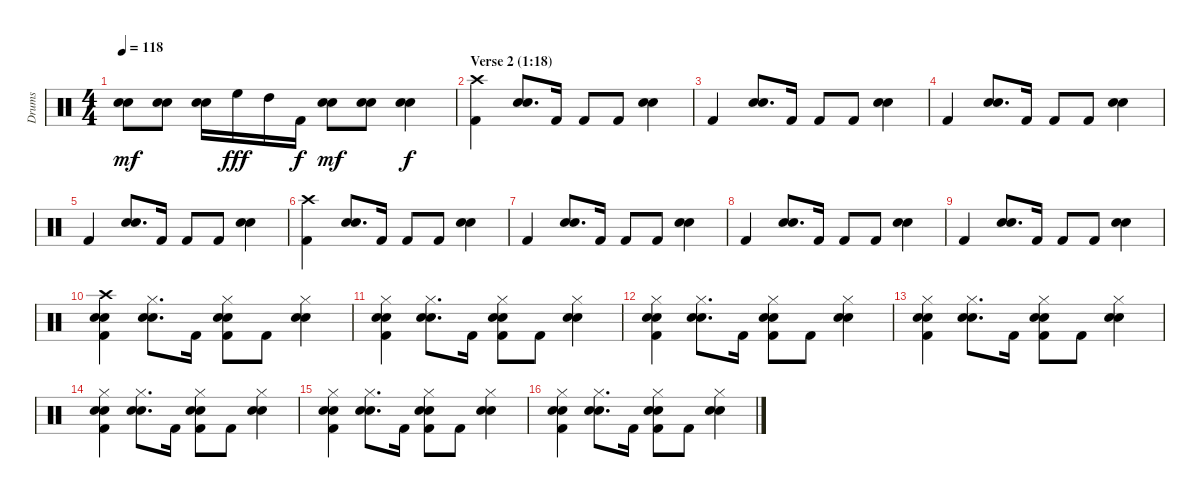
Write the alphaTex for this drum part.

\track ("Drums" "Drums") {instrument percussion}
\staff {score}
\articulation defaults
\ts (4 4)
\tempo 118
\clef neutral
\ks c
("Electric Snare (hit)" "Snare (hit) 2").8{dy mf} ("Electric Snare (hit)" "Snare (hit) 2").8 ("Electric Snare (hit)" "Snare (hit) 2").16 "High Floor Tom (hit)".16{dy fff} "High Tom (hit)".16 "Kick (hit) 2".16{dy f} ("Electric Snare (hit)" "Snare (hit) 2").8{dy mf} ("Electric Snare (hit)" "Snare (hit) 2").8 ("Electric Snare (hit)" "Snare (hit) 2").4{dy f} |
\section ("" "Verse 2 (1:18)")
("Crash high (hit)" "Kick (hit) 2").4 ("Electric Snare (hit)" "Snare (hit) 2").8{d} "Kick (hit) 2".16 "Kick (hit) 2".8 "Kick (hit) 2".8 ("Electric Snare (hit)" "Snare (hit) 2").4 |
"Kick (hit) 2".4 ("Electric Snare (hit)" "Snare (hit) 2").8{d} "Kick (hit) 2".16 "Kick (hit) 2".8 "Kick (hit) 2".8 ("Electric Snare (hit)" "Snare (hit) 2").4 |
"Kick (hit) 2".4 ("Electric Snare (hit)" "Snare (hit) 2").8{d} "Kick (hit) 2".16 "Kick (hit) 2".8 "Kick (hit) 2".8 ("Electric Snare (hit)" "Snare (hit) 2").4 |
"Kick (hit) 2".4 ("Electric Snare (hit)" "Snare (hit) 2").8{d} "Kick (hit) 2".16 "Kick (hit) 2".8 "Kick (hit) 2".8 ("Electric Snare (hit)" "Snare (hit) 2").4 |
("Crash high (hit)" "Kick (hit) 2").4 ("Electric Snare (hit)" "Snare (hit) 2").8{d} "Kick (hit) 2".16 "Kick (hit) 2".8 "Kick (hit) 2".8 ("Electric Snare (hit)" "Snare (hit) 2").4 |
"Kick (hit) 2".4 ("Electric Snare (hit)" "Snare (hit) 2").8{d} "Kick (hit) 2".16 "Kick (hit) 2".8 "Kick (hit) 2".8 ("Electric Snare (hit)" "Snare (hit) 2").4 |
"Kick (hit) 2".4 ("Electric Snare (hit)" "Snare (hit) 2").8{d} "Kick (hit) 2".16 "Kick (hit) 2".8 "Kick (hit) 2".8 ("Electric Snare (hit)" "Snare (hit) 2").4 |
"Kick (hit) 2".4 ("Electric Snare (hit)" "Snare (hit) 2").8{d} "Kick (hit) 2".16 "Kick (hit) 2".8 "Kick (hit) 2".8 ("Electric Snare (hit)" "Snare (hit) 2").4 |
("Crash high (hit)" "Electric Snare (hit)" "Snare (hit) 2" "Kick (hit) 2").4 ("Hi-Hat (closed)" "Electric Snare (hit)" "Snare (hit) 2").8{d} "Kick (hit) 2".16 ("Hi-Hat (closed)" "Electric Snare (hit)" "Snare (hit) 2" "Kick (hit) 2").8 "Kick (hit) 2".8 ("Hi-Hat (closed)" "Electric Snare (hit)" "Snare (hit) 2").4 |
("Hi-Hat (closed)" "Electric Snare (hit)" "Snare (hit) 2" "Kick (hit) 2").4 ("Hi-Hat (closed)" "Electric Snare (hit)" "Snare (hit) 2").8{d} "Kick (hit) 2".16 ("Hi-Hat (closed)" "Electric Snare (hit)" "Snare (hit) 2" "Kick (hit) 2").8 "Kick (hit) 2".8 ("Hi-Hat (closed)" "Electric Snare (hit)" "Snare (hit) 2").4 |
("Hi-Hat (closed)" "Electric Snare (hit)" "Snare (hit) 2" "Kick (hit) 2").4 ("Hi-Hat (closed)" "Electric Snare (hit)" "Snare (hit) 2").8{d} "Kick (hit) 2".16 ("Hi-Hat (closed)" "Electric Snare (hit)" "Snare (hit) 2" "Kick (hit) 2").8 "Kick (hit) 2".8 ("Hi-Hat (closed)" "Electric Snare (hit)" "Snare (hit) 2").4 |
("Hi-Hat (closed)" "Electric Snare (hit)" "Snare (hit) 2" "Kick (hit) 2").4 ("Hi-Hat (closed)" "Electric Snare (hit)" "Snare (hit) 2").8{d} "Kick (hit) 2".16 ("Hi-Hat (closed)" "Electric Snare (hit)" "Snare (hit) 2" "Kick (hit) 2").8 "Kick (hit) 2".8 ("Hi-Hat (closed)" "Electric Snare (hit)" "Snare (hit) 2").4 |
("Hi-Hat (closed)" "Electric Snare (hit)" "Snare (hit) 2" "Kick (hit) 2").4 ("Hi-Hat (closed)" "Electric Snare (hit)" "Snare (hit) 2").8{d} "Kick (hit) 2".16 ("Hi-Hat (closed)" "Electric Snare (hit)" "Snare (hit) 2" "Kick (hit) 2").8 "Kick (hit) 2".8 ("Hi-Hat (closed)" "Electric Snare (hit)" "Snare (hit) 2").4 |
("Hi-Hat (closed)" "Electric Snare (hit)" "Snare (hit) 2" "Kick (hit) 2").4 ("Hi-Hat (closed)" "Electric Snare (hit)" "Snare (hit) 2").8{d} "Kick (hit) 2".16 ("Hi-Hat (closed)" "Electric Snare (hit)" "Snare (hit) 2" "Kick (hit) 2").8 "Kick (hit) 2".8 ("Hi-Hat (closed)" "Electric Snare (hit)" "Snare (hit) 2").4 |
("Hi-Hat (closed)" "Electric Snare (hit)" "Snare (hit) 2" "Kick (hit) 2").4 ("Hi-Hat (closed)" "Electric Snare (hit)" "Snare (hit) 2").8{d} "Kick (hit) 2".16 ("Hi-Hat (closed)" "Electric Snare (hit)" "Snare (hit) 2" "Kick (hit) 2").8 "Kick (hit) 2".8 ("Hi-Hat (closed)" "Electric Snare (hit)" "Snare (hit) 2").4
